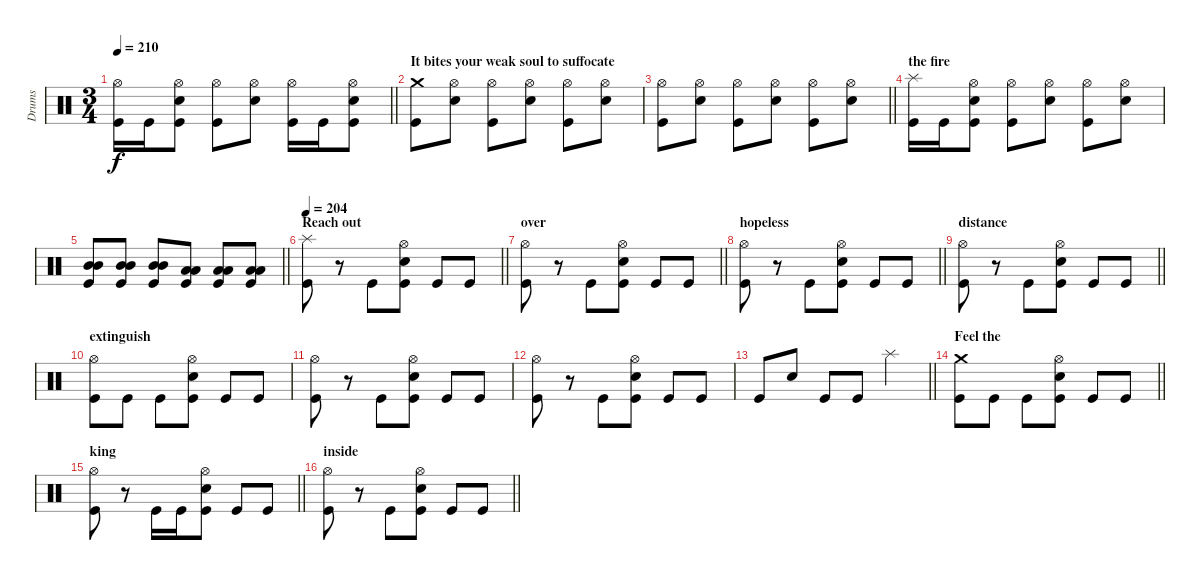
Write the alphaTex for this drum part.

\track ("Drums" "Drums") {instrument percussion}
\staff {score}
\articulation defaults
\ts (3 4)
\tempo 210
\clef neutral
\barLineRight lightlight
\ks c
("Hi-Hat (open)" "Kick (hit)").16{dy f} "Kick (hit)".16 ("Hi-Hat (open)" "Snare (hit) 2" "Kick (hit)").8 ("Hi-Hat (open)" "Kick (hit)").8 ("Hi-Hat (open)" "Snare (hit) 2").8 ("Hi-Hat (open)" "Kick (hit)").16 "Kick (hit)".16 ("Hi-Hat (open)" "Snare (hit) 2" "Kick (hit)").8 |
\section ("" "It bites your weak soul to suffocate ")
("Crash medium (hit)" "Kick (hit)").8 ("Hi-Hat (open)" "Snare (hit) 2").8 ("Hi-Hat (open)" "Kick (hit)").8 ("Hi-Hat (open)" "Snare (hit) 2").8 ("Hi-Hat (open)" "Kick (hit)").8 ("Hi-Hat (open)" "Snare (hit) 2").8 |
\barLineRight lightlight
("Hi-Hat (open)" "Kick (hit)").8 ("Hi-Hat (open)" "Snare (hit) 2").8 ("Hi-Hat (open)" "Kick (hit)").8 ("Hi-Hat (open)" "Snare (hit) 2").8 ("Hi-Hat (open)" "Kick (hit)").8 ("Hi-Hat (open)" "Snare (hit) 2").8 |
\section ("" "the fire")
("Splash (hit)" "Kick (hit)").16 "Kick (hit)".16 ("Hi-Hat (open)" "Snare (hit) 2" "Kick (hit)").8 ("Hi-Hat (open)" "Kick (hit)").8 ("Hi-Hat (open)" "Snare (hit) 2").8 ("Hi-Hat (open)" "Kick (hit)").8 ("Hi-Hat (open)" "Snare (hit) 2").8 |
\barLineRight lightlight
("Mid Tom (hit)" "Mid Tom (hit)" "Kick (hit)").8 ("Mid Tom (hit)" "Mid Tom (hit)" "Kick (hit)").8 ("Mid Tom (hit)" "Mid Tom (hit)" "Kick (hit)").8 ("Low Tom (hit)" "Low Tom (hit)" "Kick (hit)").8 ("Low Tom (hit)" "Low Tom (hit)" "Kick (hit)").8 ("Low Tom (hit)" "Low Tom (hit)" "Kick (hit)").8 |
\section ("" "Reach out ")
\tempo 204
\barLineRight lightlight
("Splash (hit)" "Kick (hit)").8 r.8 "Kick (hit)".8 ("Hi-Hat (open)" "Snare (hit) 2" "Kick (hit)").8 "Kick (hit)".8 "Kick (hit)".8 |
\section ("" "over ")
\barLineRight lightlight
("Hi-Hat (open)" "Kick (hit)").8 r.8 "Kick (hit)".8 ("Hi-Hat (open)" "Snare (hit) 2" "Kick (hit)").8 "Kick (hit)".8 "Kick (hit)".8 |
\section ("" "hopeless ")
\barLineRight lightlight
("Hi-Hat (open)" "Kick (hit)").8 r.8 "Kick (hit)".8 ("Hi-Hat (open)" "Snare (hit) 2" "Kick (hit)").8 "Kick (hit)".8 "Kick (hit)".8 |
\section ("" "distance ")
\barLineRight lightlight
("Hi-Hat (open)" "Kick (hit)").8 r.8 "Kick (hit)".8 ("Hi-Hat (open)" "Snare (hit) 2" "Kick (hit)").8 "Kick (hit)".8 "Kick (hit)".8 |
\section ("" "extinguish")
("Hi-Hat (open)" "Kick (hit)").8 "Kick (hit)".8 "Kick (hit)".8 ("Hi-Hat (open)" "Snare (hit) 2" "Kick (hit)").8 "Kick (hit)".8 "Kick (hit)".8 |
("Hi-Hat (open)" "Kick (hit)").8 r.8 "Kick (hit)".8 ("Hi-Hat (open)" "Snare (hit) 2" "Kick (hit)").8 "Kick (hit)".8 "Kick (hit)".8 |
("Hi-Hat (open)" "Kick (hit)").8 r.8 "Kick (hit)".8 ("Hi-Hat (open)" "Snare (hit) 2" "Kick (hit)").8 "Kick (hit)".8 "Kick (hit)".8 |
\barLineRight lightlight "Kick (hit)".8 "Snare (hit) 2".8 "Kick (hit)".8 "Kick (hit)".8 "Splash (hit)".4
|
\section ("" "Feel the")
\barLineRight lightlight
("Crash medium (hit)" "Kick (hit)").8 "Kick (hit)".8 "Kick (hit)".8 ("Hi-Hat (open)" "Snare (hit) 2" "Kick (hit)").8 "Kick (hit)".8 "Kick (hit)".8 |
\section ("" "king ")
\barLineRight lightlight
("Hi-Hat (open)" "Kick (hit)").8 r.8 "Kick (hit)".16 "Kick (hit)".16 ("Hi-Hat (open)" "Snare (hit) 2" "Kick (hit)").8 "Kick (hit)".8 "Kick (hit)".8 |
\section ("" "inside ")
\barLineRight lightlight
("Hi-Hat (open)" "Kick (hit)").8 r.8 "Kick (hit)".8 ("Hi-Hat (open)" "Snare (hit) 2" "Kick (hit)").8 "Kick (hit)".8 "Kick (hit)".8
